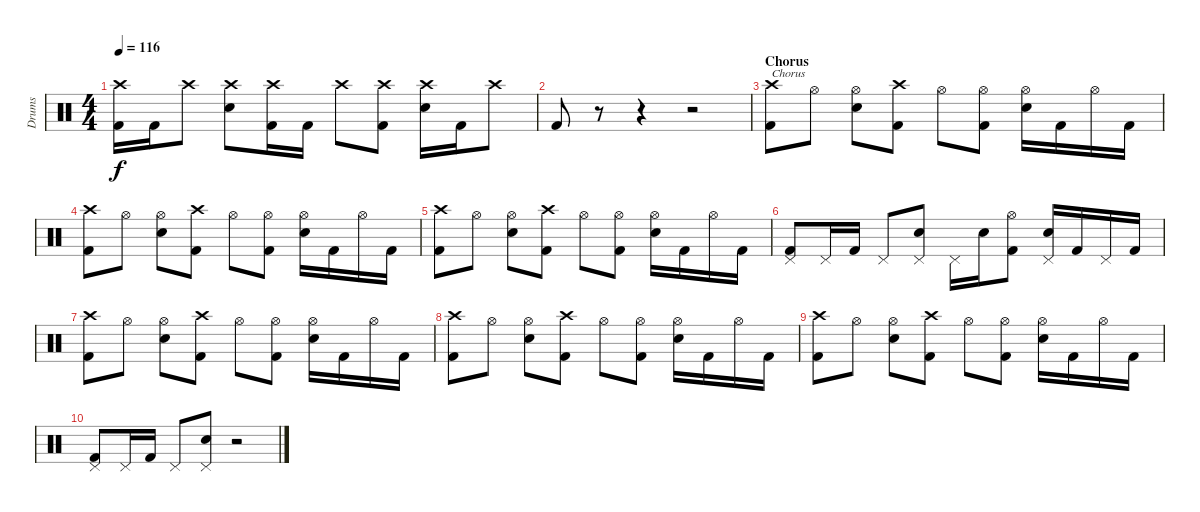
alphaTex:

\track ("Drums" "Drums") {instrument percussion}
\staff {score}
\articulation defaults
\ts (4 4)
\tempo 116
\clef neutral
\ks c
("Crash high (hit)" "Kick (hit) 2").16{dy f} "Kick (hit) 2".16 "Crash high (hit)".8 ("Crash high (hit)" "Electric Snare (hit)").8 ("Crash high (hit)" "Kick (hit) 2").16 "Kick (hit) 2".16 "Crash high (hit)".8 ("Crash high (hit)" "Kick (hit) 2").8 ("Crash high (hit)" "Electric Snare (hit)").16 "Kick (hit) 2".16 "Crash high (hit)".8 |
"Kick (hit) 2".8 r.8 r.4 r.2 |
\section ("" "Chorus")
("Crash high (hit)" "Kick (hit) 2").8{txt "Chorus"} "Hi-Hat (open)".8 ("Hi-Hat (open)" "Electric Snare (hit)").8 ("Crash high (hit)" "Kick (hit) 2").8 "Hi-Hat (open)".8 ("Hi-Hat (open)" "Kick (hit) 2").8 ("Hi-Hat (open)" "Electric Snare (hit)").16 "Kick (hit) 2".16 "Hi-Hat (open)".16 "Kick (hit) 2".16 |
("Crash high (hit)" "Kick (hit) 2").8 "Hi-Hat (open)".8 ("Hi-Hat (open)" "Electric Snare (hit)").8 ("Crash high (hit)" "Kick (hit) 2").8 "Hi-Hat (open)".8 ("Hi-Hat (open)" "Kick (hit) 2").8 ("Hi-Hat (open)" "Electric Snare (hit)").16 "Kick (hit) 2".16 "Hi-Hat (open)".16 "Kick (hit) 2".16 |
("Crash high (hit)" "Kick (hit) 2").8 "Hi-Hat (open)".8 ("Hi-Hat (open)" "Electric Snare (hit)").8 ("Crash high (hit)" "Kick (hit) 2").8 "Hi-Hat (open)".8 ("Hi-Hat (open)" "Kick (hit) 2").8 ("Hi-Hat (open)" "Electric Snare (hit)").16 "Kick (hit) 2".16 "Hi-Hat (open)".16 "Kick (hit) 2".16 |
("Pedal Hi-Hat (hit)" "Kick (hit) 2").8 "Pedal Hi-Hat (hit)".16 "Kick (hit) 2".16 "Pedal Hi-Hat (hit)".8 ("Pedal Hi-Hat (hit)" "Electric Snare (hit)").8 "Pedal Hi-Hat (hit)".16 "Electric Snare (hit)".16 ("Hi-Hat (open)" "Kick (hit) 2").8 ("Pedal Hi-Hat (hit)" "Electric Snare (hit)").16 "Kick (hit) 2".16 "Pedal Hi-Hat (hit)".16 "Kick (hit) 2".16 |
("Crash high (hit)" "Kick (hit) 2").8 "Hi-Hat (open)".8 ("Hi-Hat (open)" "Electric Snare (hit)").8 ("Crash high (hit)" "Kick (hit) 2").8 "Hi-Hat (open)".8 ("Hi-Hat (open)" "Kick (hit) 2").8 ("Hi-Hat (open)" "Electric Snare (hit)").16 "Kick (hit) 2".16 "Hi-Hat (open)".16 "Kick (hit) 2".16 |
("Crash high (hit)" "Kick (hit) 2").8 "Hi-Hat (open)".8 ("Hi-Hat (open)" "Electric Snare (hit)").8 ("Crash high (hit)" "Kick (hit) 2").8 "Hi-Hat (open)".8 ("Hi-Hat (open)" "Kick (hit) 2").8 ("Hi-Hat (open)" "Electric Snare (hit)").16 "Kick (hit) 2".16 "Hi-Hat (open)".16 "Kick (hit) 2".16 |
("Crash high (hit)" "Kick (hit) 2").8 "Hi-Hat (open)".8 ("Hi-Hat (open)" "Electric Snare (hit)").8 ("Crash high (hit)" "Kick (hit) 2").8 "Hi-Hat (open)".8 ("Hi-Hat (open)" "Kick (hit) 2").8 ("Hi-Hat (open)" "Electric Snare (hit)").16 "Kick (hit) 2".16 "Hi-Hat (open)".16 "Kick (hit) 2".16 |
("Pedal Hi-Hat (hit)" "Kick (hit) 2").8 "Pedal Hi-Hat (hit)".16 "Kick (hit) 2".16 "Pedal Hi-Hat (hit)".8 ("Pedal Hi-Hat (hit)" "Electric Snare (hit)").8 r.2
